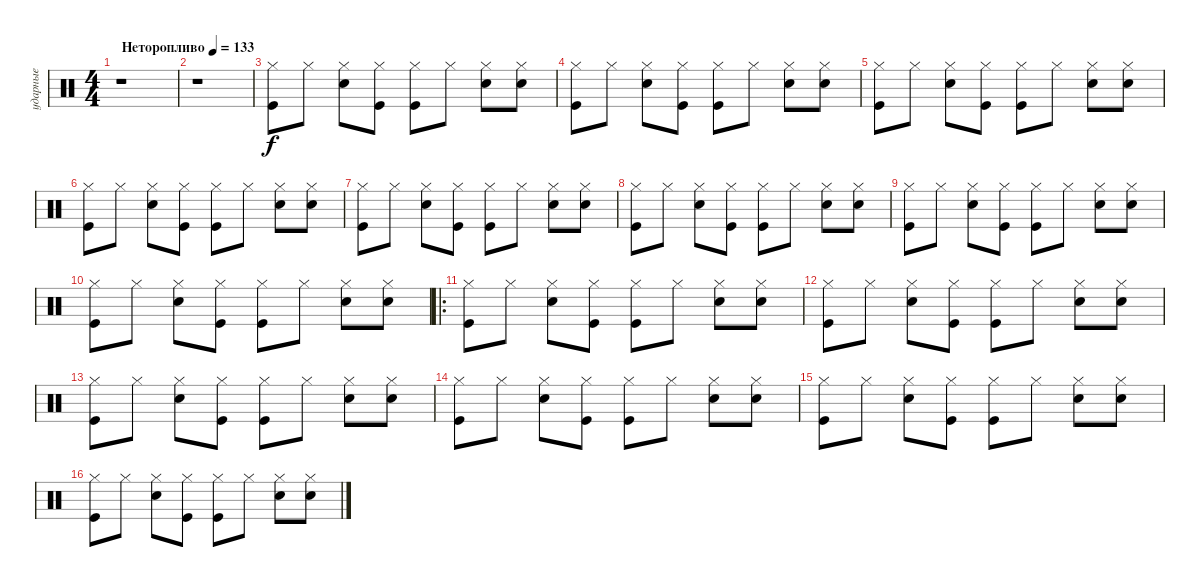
\track ("ударные" "ударные") {instrument percussion}
\staff {score}
\articulation defaults
\ts (4 4)
\tempo (133 "Неторопливо")
\clef neutral
\ks c
r.1{dy f} |
r.1 |
("Kick (hit)" "Hi-Hat (closed)").8 "Hi-Hat (closed)".8 ("Snare (hit) 2" "Hi-Hat (closed)").8 ("Hi-Hat (closed)" "Kick (hit)").8 ("Kick (hit)" "Hi-Hat (closed)").8 "Hi-Hat (closed)".8 ("Hi-Hat (closed)" "Snare (hit) 2").8 ("Snare (hit) 2" "Hi-Hat (closed)").8 |
("Kick (hit)" "Hi-Hat (closed)").8 "Hi-Hat (closed)".8 ("Snare (hit) 2" "Hi-Hat (closed)").8 ("Hi-Hat (closed)" "Kick (hit)").8 ("Kick (hit)" "Hi-Hat (closed)").8 "Hi-Hat (closed)".8 ("Hi-Hat (closed)" "Snare (hit) 2").8 ("Snare (hit) 2" "Hi-Hat (closed)").8 |
("Kick (hit)" "Hi-Hat (closed)").8 "Hi-Hat (closed)".8 ("Snare (hit) 2" "Hi-Hat (closed)").8 ("Hi-Hat (closed)" "Kick (hit)").8 ("Kick (hit)" "Hi-Hat (closed)").8 "Hi-Hat (closed)".8 ("Hi-Hat (closed)" "Snare (hit) 2").8 ("Snare (hit) 2" "Hi-Hat (closed)").8 |
("Kick (hit)" "Hi-Hat (closed)").8 "Hi-Hat (closed)".8 ("Snare (hit) 2" "Hi-Hat (closed)").8 ("Hi-Hat (closed)" "Kick (hit)").8 ("Kick (hit)" "Hi-Hat (closed)").8 "Hi-Hat (closed)".8 ("Hi-Hat (closed)" "Snare (hit) 2").8 ("Snare (hit) 2" "Hi-Hat (closed)").8 |
("Kick (hit)" "Hi-Hat (closed)").8 "Hi-Hat (closed)".8 ("Snare (hit) 2" "Hi-Hat (closed)").8 ("Hi-Hat (closed)" "Kick (hit)").8 ("Kick (hit)" "Hi-Hat (closed)").8 "Hi-Hat (closed)".8 ("Hi-Hat (closed)" "Snare (hit) 2").8 ("Snare (hit) 2" "Hi-Hat (closed)").8 |
("Kick (hit)" "Hi-Hat (closed)").8 "Hi-Hat (closed)".8 ("Snare (hit) 2" "Hi-Hat (closed)").8 ("Hi-Hat (closed)" "Kick (hit)").8 ("Kick (hit)" "Hi-Hat (closed)").8 "Hi-Hat (closed)".8 ("Hi-Hat (closed)" "Snare (hit) 2").8 ("Snare (hit) 2" "Hi-Hat (closed)").8 |
("Kick (hit)" "Hi-Hat (closed)").8 "Hi-Hat (closed)".8 ("Snare (hit) 2" "Hi-Hat (closed)").8 ("Hi-Hat (closed)" "Kick (hit)").8 ("Kick (hit)" "Hi-Hat (closed)").8 "Hi-Hat (closed)".8 ("Hi-Hat (closed)" "Snare (hit) 2").8 ("Snare (hit) 2" "Hi-Hat (closed)").8 |
("Kick (hit)" "Hi-Hat (closed)").8 "Hi-Hat (closed)".8 ("Snare (hit) 2" "Hi-Hat (closed)").8 ("Hi-Hat (closed)" "Kick (hit)").8 ("Kick (hit)" "Hi-Hat (closed)").8 "Hi-Hat (closed)".8 ("Hi-Hat (closed)" "Snare (hit) 2").8 ("Snare (hit) 2" "Hi-Hat (closed)").8 |
\ro
("Kick (hit)" "Hi-Hat (closed)").8 "Hi-Hat (closed)".8 ("Snare (hit) 2" "Hi-Hat (closed)").8 ("Hi-Hat (closed)" "Kick (hit)").8 ("Kick (hit)" "Hi-Hat (closed)").8 "Hi-Hat (closed)".8 ("Hi-Hat (closed)" "Snare (hit) 2").8 ("Snare (hit) 2" "Hi-Hat (closed)").8 |
("Kick (hit)" "Hi-Hat (closed)").8 "Hi-Hat (closed)".8 ("Snare (hit) 2" "Hi-Hat (closed)").8 ("Hi-Hat (closed)" "Kick (hit)").8 ("Kick (hit)" "Hi-Hat (closed)").8 "Hi-Hat (closed)".8 ("Hi-Hat (closed)" "Snare (hit) 2").8 ("Snare (hit) 2" "Hi-Hat (closed)").8 |
("Kick (hit)" "Hi-Hat (closed)").8 "Hi-Hat (closed)".8 ("Snare (hit) 2" "Hi-Hat (closed)").8 ("Hi-Hat (closed)" "Kick (hit)").8 ("Kick (hit)" "Hi-Hat (closed)").8 "Hi-Hat (closed)".8 ("Hi-Hat (closed)" "Snare (hit) 2").8 ("Snare (hit) 2" "Hi-Hat (closed)").8 |
("Kick (hit)" "Hi-Hat (closed)").8 "Hi-Hat (closed)".8 ("Snare (hit) 2" "Hi-Hat (closed)").8 ("Hi-Hat (closed)" "Kick (hit)").8 ("Kick (hit)" "Hi-Hat (closed)").8 "Hi-Hat (closed)".8 ("Hi-Hat (closed)" "Snare (hit) 2").8 ("Snare (hit) 2" "Hi-Hat (closed)").8 |
("Kick (hit)" "Hi-Hat (closed)").8 "Hi-Hat (closed)".8 ("Snare (hit) 2" "Hi-Hat (closed)").8 ("Hi-Hat (closed)" "Kick (hit)").8 ("Kick (hit)" "Hi-Hat (closed)").8 "Hi-Hat (closed)".8 ("Hi-Hat (closed)" "Snare (hit) 2").8 ("Snare (hit) 2" "Hi-Hat (closed)").8 |
("Kick (hit)" "Hi-Hat (closed)").8 "Hi-Hat (closed)".8 ("Snare (hit) 2" "Hi-Hat (closed)").8 ("Hi-Hat (closed)" "Kick (hit)").8 ("Kick (hit)" "Hi-Hat (closed)").8 "Hi-Hat (closed)".8 ("Hi-Hat (closed)" "Snare (hit) 2").8 ("Snare (hit) 2" "Hi-Hat (closed)").8
